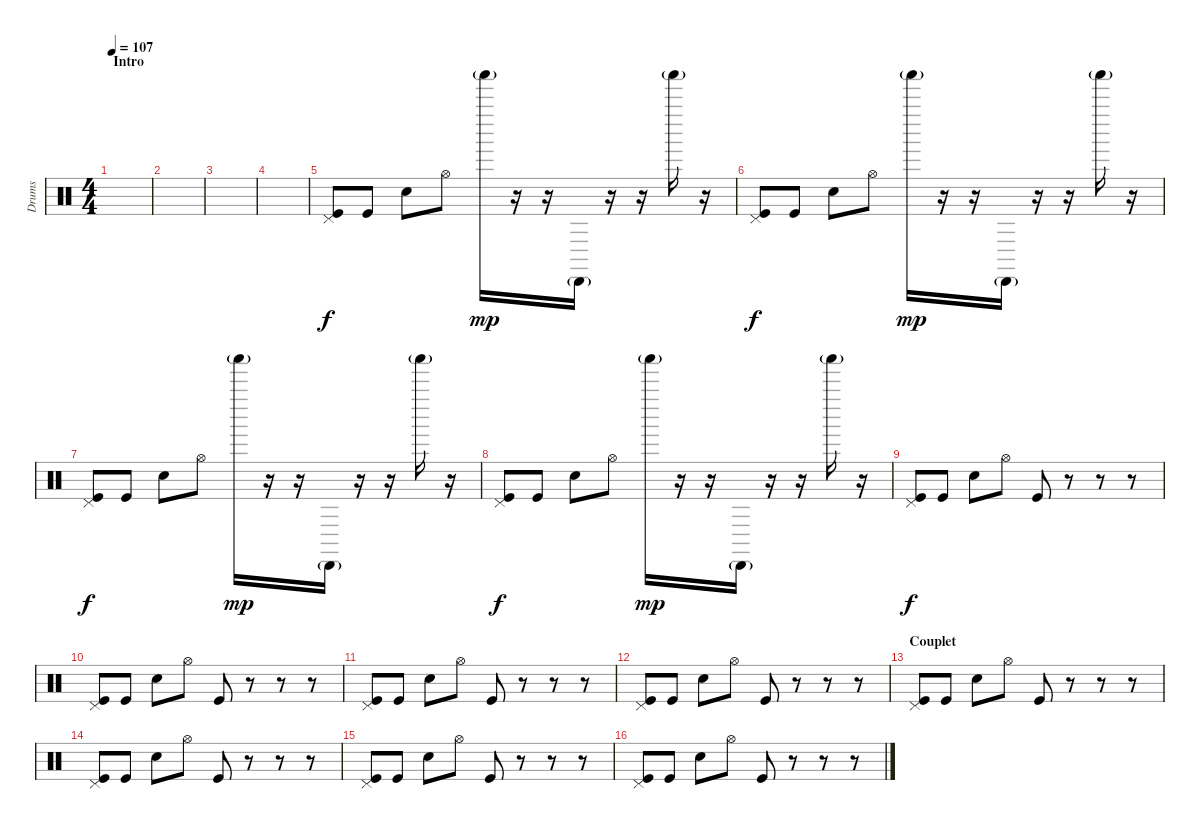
\track ("Drums" "Drums") {instrument percussion}
\staff {score}
\articulation defaults
\ts (4 4)
\section ("" "Intro")
\tempo 107
\clef neutral
\ks c
|
|
|
|
("Pedal Hi-Hat (hit)" "Kick (hit)").8 "Kick (hit)".8 "Electric Snare (hit)".8 "Hi-Hat (open)".8 "Shaker (hit)"{g}.16{dy mp} r.16 r.16 "Cabasa (hit)"{g}.16 r.16 r.16 "Shaker (hit)"{g}.16 r.16 |
("Pedal Hi-Hat (hit)" "Kick (hit)").8{dy f} "Kick (hit)".8 "Electric Snare (hit)".8 "Hi-Hat (open)".8 "Shaker (hit)"{g}.16{dy mp} r.16 r.16 "Cabasa (hit)"{g}.16 r.16 r.16 "Shaker (hit)"{g}.16 r.16 |
("Pedal Hi-Hat (hit)" "Kick (hit)").8{dy f} "Kick (hit)".8 "Electric Snare (hit)".8 "Hi-Hat (open)".8 "Shaker (hit)"{g}.16{dy mp} r.16 r.16 "Cabasa (hit)"{g}.16 r.16 r.16 "Shaker (hit)"{g}.16 r.16 |
("Pedal Hi-Hat (hit)" "Kick (hit)").8{dy f} "Kick (hit)".8 "Electric Snare (hit)".8 "Hi-Hat (open)".8 "Shaker (hit)"{g}.16{dy mp} r.16 r.16 "Cabasa (hit)"{g}.16 r.16 r.16 "Shaker (hit)"{g}.16 r.16 |
("Pedal Hi-Hat (hit)" "Kick (hit)").8{dy f} "Kick (hit)".8 "Electric Snare (hit)".8 "Hi-Hat (open)".8 "Kick (hit)".8 r.8 r.8 r.8 |
("Pedal Hi-Hat (hit)" "Kick (hit)").8 "Kick (hit)".8 "Electric Snare (hit)".8 "Hi-Hat (open)".8 "Kick (hit)".8 r.8 r.8 r.8 |
("Pedal Hi-Hat (hit)" "Kick (hit)").8 "Kick (hit)".8 "Electric Snare (hit)".8 "Hi-Hat (open)".8 "Kick (hit)".8 r.8 r.8 r.8 |
("Pedal Hi-Hat (hit)" "Kick (hit)").8 "Kick (hit)".8 "Electric Snare (hit)".8 "Hi-Hat (open)".8 "Kick (hit)".8 r.8 r.8 r.8 |
\section ("" "Couplet")
("Pedal Hi-Hat (hit)" "Kick (hit)").8 "Kick (hit)".8 "Electric Snare (hit)".8 "Hi-Hat (open)".8 "Kick (hit)".8 r.8 r.8 r.8 |
("Pedal Hi-Hat (hit)" "Kick (hit)").8 "Kick (hit)".8 "Electric Snare (hit)".8 "Hi-Hat (open)".8 "Kick (hit)".8 r.8 r.8 r.8 |
("Pedal Hi-Hat (hit)" "Kick (hit)").8 "Kick (hit)".8 "Electric Snare (hit)".8 "Hi-Hat (open)".8 "Kick (hit)".8 r.8 r.8 r.8 |
("Pedal Hi-Hat (hit)" "Kick (hit)").8 "Kick (hit)".8 "Electric Snare (hit)".8 "Hi-Hat (open)".8 "Kick (hit)".8 r.8 r.8 r.8
